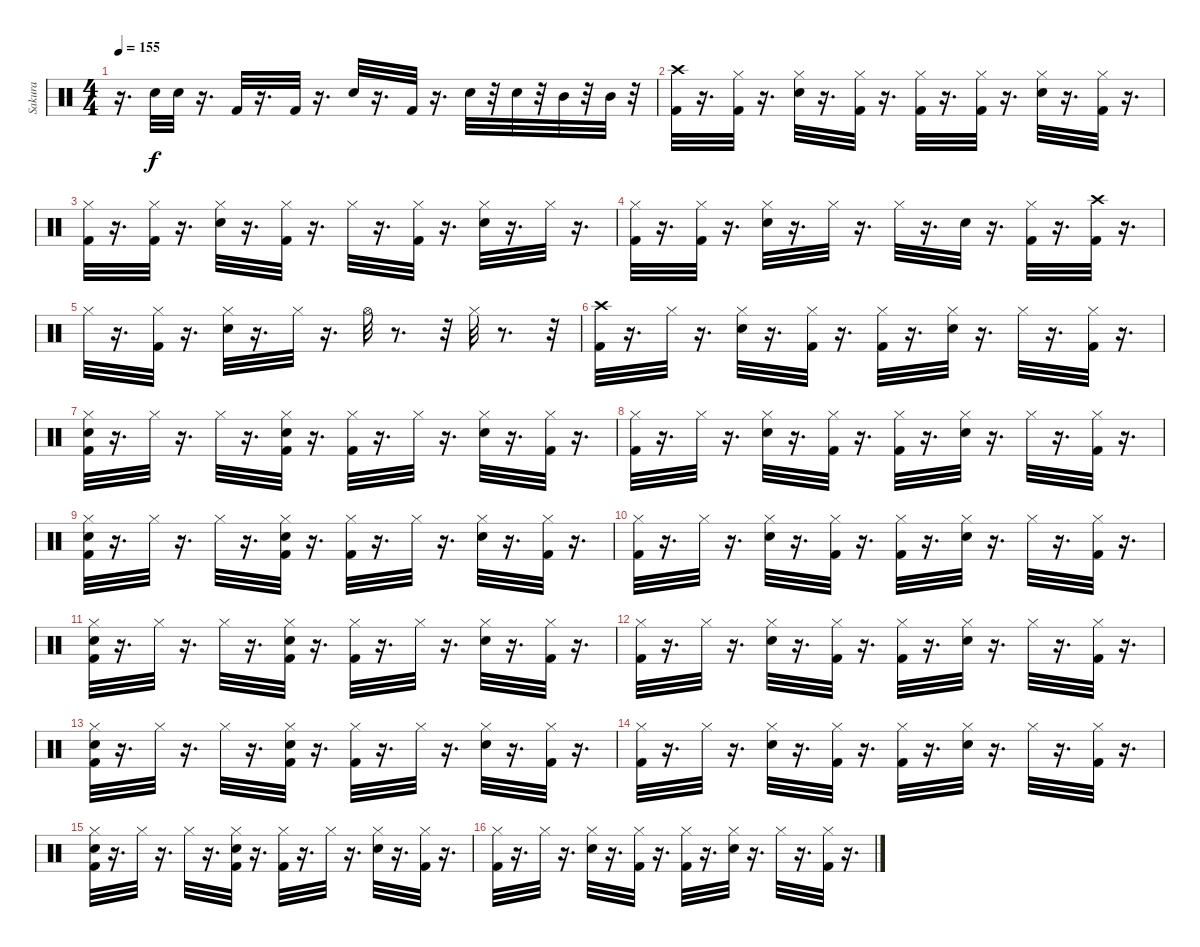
\track ("Sakura" "Sakura") {instrument percussion}
\staff {score}
\articulation defaults
\ts (4 4)
\tempo 155
\clef neutral
\ks c
r.16{d dy fff} "Snare (hit) 2".32{dy f} "Snare (hit) 2".32 r.16{d} "Kick (hit) 2".32 r.16{d} "Kick (hit) 2".32 r.16{d} "Snare (hit) 2".32 r.16{d} "Kick (hit) 2".32 r.16{d} "Snare (hit) 2".32 r.32 "Snare (hit) 2".32 r.32 "Mid Tom (hit)".32 r.32 "Mid Tom (hit)".32 r.32 |
("Crash high (hit)" "Kick (hit) 2").32 r.16{d} ("Hi-Hat (closed)" "Kick (hit) 2").32 r.16{d} ("Hi-Hat (closed)" "Snare (hit) 2").32 r.16{d} ("Hi-Hat (closed)" "Kick (hit) 2").32 r.16{d} ("Kick (hit) 2" "Hi-Hat (closed)").32 r.16{d} ("Kick (hit) 2" "Hi-Hat (closed)").32 r.16{d} ("Hi-Hat (closed)" "Snare (hit) 2").32 r.16{d} ("Kick (hit) 2" "Hi-Hat (closed)").32 r.16{d} |
("Kick (hit) 2" "Hi-Hat (closed)").32 r.16{d} ("Kick (hit) 2" "Hi-Hat (closed)").32 r.16{d} ("Hi-Hat (closed)" "Snare (hit) 2").32 r.16{d} ("Kick (hit) 2" "Hi-Hat (closed)").32 r.16{d} "Hi-Hat (closed)".32 r.16{d} ("Hi-Hat (closed)" "Kick (hit) 2").32 r.16{d} ("Hi-Hat (closed)" "Snare (hit) 2").32 r.16{d} "Hi-Hat (closed)".32 r.16{d} |
("Hi-Hat (closed)" "Kick (hit) 2").32 r.16{d} ("Hi-Hat (closed)" "Kick (hit) 2").32 r.16{d} ("Hi-Hat (closed)" "Snare (hit) 2").32 r.16{d} "Hi-Hat (closed)".32 r.16{d} "Hi-Hat (closed)".32 r.16{d} "Snare (hit) 2".32 r.16{d} ("Hi-Hat (closed)" "Kick (hit) 2").32 r.16{d} ("Crash high (hit)" "Kick (hit) 2").32 r.16{d} |
"Hi-Hat (closed)".32 r.16{d} ("Hi-Hat (closed)" "Kick (hit) 2").32 r.16{d} ("Hi-Hat (closed)" "Snare (hit) 2").32 r.16{d} "Hi-Hat (closed)".32 r.16{d} "Hi-Hat (open)".32 r.8{d} r.32 "Hi-Hat (closed)".32 r.8{d} r.32 |
("Crash high (hit)" "Kick (hit) 2").32 r.16{d} "Hi-Hat (closed)".32 r.16{d} ("Hi-Hat (closed)" "Snare (hit) 2").32 r.16{d} ("Hi-Hat (closed)" "Kick (hit) 2").32 r.16{d} ("Hi-Hat (closed)" "Kick (hit) 2").32 r.16{d} ("Hi-Hat (closed)" "Snare (hit) 2").32 r.16{d} "Hi-Hat (closed)".32 r.16{d} ("Hi-Hat (closed)" "Kick (hit) 2").32 r.16{d} |
("Hi-Hat (closed)" "Snare (hit) 2" "Kick (hit) 2").32 r.16{d} "Hi-Hat (closed)".32 r.16{d} "Hi-Hat (closed)".32 r.16{d} ("Hi-Hat (closed)" "Kick (hit) 2" "Snare (hit) 2").32 r.16{d} ("Hi-Hat (closed)" "Kick (hit) 2").32 r.16{d} "Hi-Hat (closed)".32 r.16{d} ("Hi-Hat (closed)" "Snare (hit) 2").32 r.16{d} ("Hi-Hat (closed)" "Kick (hit) 2").32 r.16{d} |
("Kick (hit) 2" "Hi-Hat (closed)").32 r.16{d} "Hi-Hat (closed)".32 r.16{d} ("Hi-Hat (closed)" "Snare (hit) 2").32 r.16{d} ("Hi-Hat (closed)" "Kick (hit) 2").32 r.16{d} ("Hi-Hat (closed)" "Kick (hit) 2").32 r.16{d} ("Hi-Hat (closed)" "Snare (hit) 2").32 r.16{d} "Hi-Hat (closed)".32 r.16{d} ("Hi-Hat (closed)" "Kick (hit) 2").32 r.16{d} |
("Hi-Hat (closed)" "Snare (hit) 2" "Kick (hit) 2").32 r.16{d} "Hi-Hat (closed)".32 r.16{d} "Hi-Hat (closed)".32 r.16{d} ("Hi-Hat (closed)" "Kick (hit) 2" "Snare (hit) 2").32 r.16{d} ("Hi-Hat (closed)" "Kick (hit) 2").32 r.16{d} "Hi-Hat (closed)".32 r.16{d} ("Hi-Hat (closed)" "Snare (hit) 2").32 r.16{d} ("Hi-Hat (closed)" "Kick (hit) 2").32 r.16{d} |
("Kick (hit) 2" "Hi-Hat (closed)").32 r.16{d} "Hi-Hat (closed)".32 r.16{d} ("Hi-Hat (closed)" "Snare (hit) 2").32 r.16{d} ("Hi-Hat (closed)" "Kick (hit) 2").32 r.16{d} ("Hi-Hat (closed)" "Kick (hit) 2").32 r.16{d} ("Hi-Hat (closed)" "Snare (hit) 2").32 r.16{d} "Hi-Hat (closed)".32 r.16{d} ("Hi-Hat (closed)" "Kick (hit) 2").32 r.16{d} |
("Hi-Hat (closed)" "Snare (hit) 2" "Kick (hit) 2").32 r.16{d} "Hi-Hat (closed)".32 r.16{d} "Hi-Hat (closed)".32 r.16{d} ("Hi-Hat (closed)" "Kick (hit) 2" "Snare (hit) 2").32 r.16{d} ("Hi-Hat (closed)" "Kick (hit) 2").32 r.16{d} "Hi-Hat (closed)".32 r.16{d} ("Hi-Hat (closed)" "Snare (hit) 2").32 r.16{d} ("Hi-Hat (closed)" "Kick (hit) 2").32 r.16{d} |
("Kick (hit) 2" "Hi-Hat (closed)").32 r.16{d} "Hi-Hat (closed)".32 r.16{d} ("Hi-Hat (closed)" "Snare (hit) 2").32 r.16{d} ("Hi-Hat (closed)" "Kick (hit) 2").32 r.16{d} ("Hi-Hat (closed)" "Kick (hit) 2").32 r.16{d} ("Hi-Hat (closed)" "Snare (hit) 2").32 r.16{d} "Hi-Hat (closed)".32 r.16{d} ("Hi-Hat (closed)" "Kick (hit) 2").32 r.16{d} |
("Hi-Hat (closed)" "Snare (hit) 2" "Kick (hit) 2").32 r.16{d} "Hi-Hat (closed)".32 r.16{d} "Hi-Hat (closed)".32 r.16{d} ("Hi-Hat (closed)" "Kick (hit) 2" "Snare (hit) 2").32 r.16{d} ("Hi-Hat (closed)" "Kick (hit) 2").32 r.16{d} "Hi-Hat (closed)".32 r.16{d} ("Hi-Hat (closed)" "Snare (hit) 2").32 r.16{d} ("Hi-Hat (closed)" "Kick (hit) 2").32 r.16{d} |
("Kick (hit) 2" "Hi-Hat (closed)").32 r.16{d} "Hi-Hat (closed)".32 r.16{d} ("Hi-Hat (closed)" "Snare (hit) 2").32 r.16{d} ("Hi-Hat (closed)" "Kick (hit) 2").32 r.16{d} ("Hi-Hat (closed)" "Kick (hit) 2").32 r.16{d} ("Hi-Hat (closed)" "Snare (hit) 2").32 r.16{d} "Hi-Hat (closed)".32 r.16{d} ("Hi-Hat (closed)" "Kick (hit) 2").32 r.16{d} |
("Hi-Hat (closed)" "Snare (hit) 2" "Kick (hit) 2").32 r.16{d} "Hi-Hat (closed)".32 r.16{d} "Hi-Hat (closed)".32 r.16{d} ("Hi-Hat (closed)" "Kick (hit) 2" "Snare (hit) 2").32 r.16{d} ("Hi-Hat (closed)" "Kick (hit) 2").32 r.16{d} "Hi-Hat (closed)".32 r.16{d} ("Hi-Hat (closed)" "Snare (hit) 2").32 r.16{d} ("Hi-Hat (closed)" "Kick (hit) 2").32 r.16{d} |
("Kick (hit) 2" "Hi-Hat (closed)").32 r.16{d} "Hi-Hat (closed)".32 r.16{d} ("Hi-Hat (closed)" "Snare (hit) 2").32 r.16{d} ("Hi-Hat (closed)" "Kick (hit) 2").32 r.16{d} ("Hi-Hat (closed)" "Kick (hit) 2").32 r.16{d} ("Hi-Hat (closed)" "Snare (hit) 2").32 r.16{d} "Hi-Hat (closed)".32 r.16{d} ("Hi-Hat (closed)" "Kick (hit) 2").32 r.16{d}
